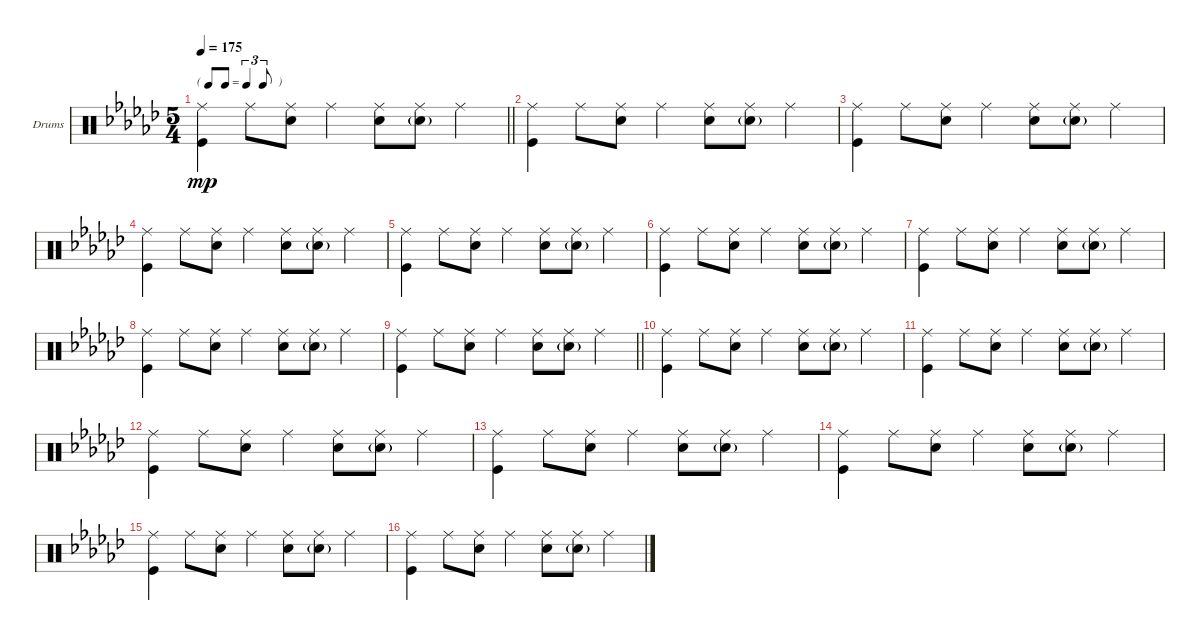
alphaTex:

\defaultSystemsLayout 4
\bracketExtendMode groupsimilarinstruments
\firstSystemTrackNameOrientation horizontal
\otherSystemsTrackNameOrientation horizontal
\track ("Drumkit" "Drums") {multiBarRest instrument percussion}
\staff {score}
\articulation defaults
\ts (5 4)
\tf triplet8th
\tempo 175
\clef neutral
\barLineRight lightlight
\ks ebminor
("Ride (middle)" "Kick (hit)").4{dy mp} "Ride (middle)".8 ("Ride (middle)" "Snare (hit) 2").8 "Ride (middle)".4 ("Ride (middle)" "Snare (hit) 2").8 ("Ride (middle)" "Snare (hit) 2"{g}).8 "Ride (middle)".4 |
("Ride (middle)" "Kick (hit)").4 "Ride (middle)".8 ("Ride (middle)" "Snare (hit) 2").8 "Ride (middle)".4 ("Ride (middle)" "Snare (hit) 2").8 ("Ride (middle)" "Snare (hit) 2"{g}).8 "Ride (middle)".4 |
("Ride (middle)" "Kick (hit)").4 "Ride (middle)".8 ("Ride (middle)" "Snare (hit) 2").8 "Ride (middle)".4 ("Ride (middle)" "Snare (hit) 2").8 ("Ride (middle)" "Snare (hit) 2"{g}).8 "Ride (middle)".4 |
("Ride (middle)" "Kick (hit)").4 "Ride (middle)".8 ("Ride (middle)" "Snare (hit) 2").8 "Ride (middle)".4 ("Ride (middle)" "Snare (hit) 2").8 ("Ride (middle)" "Snare (hit) 2"{g}).8 "Ride (middle)".4 |
("Ride (middle)" "Kick (hit)").4 "Ride (middle)".8 ("Ride (middle)" "Snare (hit) 2").8 "Ride (middle)".4 ("Ride (middle)" "Snare (hit) 2").8 ("Ride (middle)" "Snare (hit) 2"{g}).8 "Ride (middle)".4 |
("Ride (middle)" "Kick (hit)").4 "Ride (middle)".8 ("Ride (middle)" "Snare (hit) 2").8 "Ride (middle)".4 ("Ride (middle)" "Snare (hit) 2").8 ("Ride (middle)" "Snare (hit) 2"{g}).8 "Ride (middle)".4 |
("Ride (middle)" "Kick (hit)").4 "Ride (middle)".8 ("Ride (middle)" "Snare (hit) 2").8 "Ride (middle)".4 ("Ride (middle)" "Snare (hit) 2").8 ("Ride (middle)" "Snare (hit) 2"{g}).8 "Ride (middle)".4 |
("Ride (middle)" "Kick (hit)").4 "Ride (middle)".8 ("Ride (middle)" "Snare (hit) 2").8 "Ride (middle)".4 ("Ride (middle)" "Snare (hit) 2").8 ("Ride (middle)" "Snare (hit) 2"{g}).8 "Ride (middle)".4 |
\barLineRight lightlight
("Ride (middle)" "Kick (hit)").4 "Ride (middle)".8 ("Ride (middle)" "Snare (hit) 2").8 "Ride (middle)".4 ("Ride (middle)" "Snare (hit) 2").8 ("Ride (middle)" "Snare (hit) 2"{g}).8 "Ride (middle)".4 |
("Ride (middle)" "Kick (hit)").4 "Ride (middle)".8 ("Ride (middle)" "Snare (hit) 2").8 "Ride (middle)".4 ("Ride (middle)" "Snare (hit) 2").8 ("Ride (middle)" "Snare (hit) 2"{g}).8 "Ride (middle)".4 |
("Ride (middle)" "Kick (hit)").4 "Ride (middle)".8 ("Ride (middle)" "Snare (hit) 2").8 "Ride (middle)".4 ("Ride (middle)" "Snare (hit) 2").8 ("Ride (middle)" "Snare (hit) 2"{g}).8 "Ride (middle)".4 |
("Ride (middle)" "Kick (hit)").4 "Ride (middle)".8 ("Ride (middle)" "Snare (hit) 2").8 "Ride (middle)".4 ("Ride (middle)" "Snare (hit) 2").8 ("Ride (middle)" "Snare (hit) 2"{g}).8 "Ride (middle)".4 |
("Ride (middle)" "Kick (hit)").4 "Ride (middle)".8 ("Ride (middle)" "Snare (hit) 2").8 "Ride (middle)".4 ("Ride (middle)" "Snare (hit) 2").8 ("Ride (middle)" "Snare (hit) 2"{g}).8 "Ride (middle)".4 |
("Ride (middle)" "Kick (hit)").4 "Ride (middle)".8 ("Ride (middle)" "Snare (hit) 2").8 "Ride (middle)".4 ("Ride (middle)" "Snare (hit) 2").8 ("Ride (middle)" "Snare (hit) 2"{g}).8 "Ride (middle)".4 |
("Ride (middle)" "Kick (hit)").4 "Ride (middle)".8 ("Ride (middle)" "Snare (hit) 2").8 "Ride (middle)".4 ("Ride (middle)" "Snare (hit) 2").8 ("Ride (middle)" "Snare (hit) 2"{g}).8 "Ride (middle)".4 |
("Ride (middle)" "Kick (hit)").4 "Ride (middle)".8 ("Ride (middle)" "Snare (hit) 2").8 "Ride (middle)".4 ("Ride (middle)" "Snare (hit) 2").8 ("Ride (middle)" "Snare (hit) 2"{g}).8 "Ride (middle)".4
